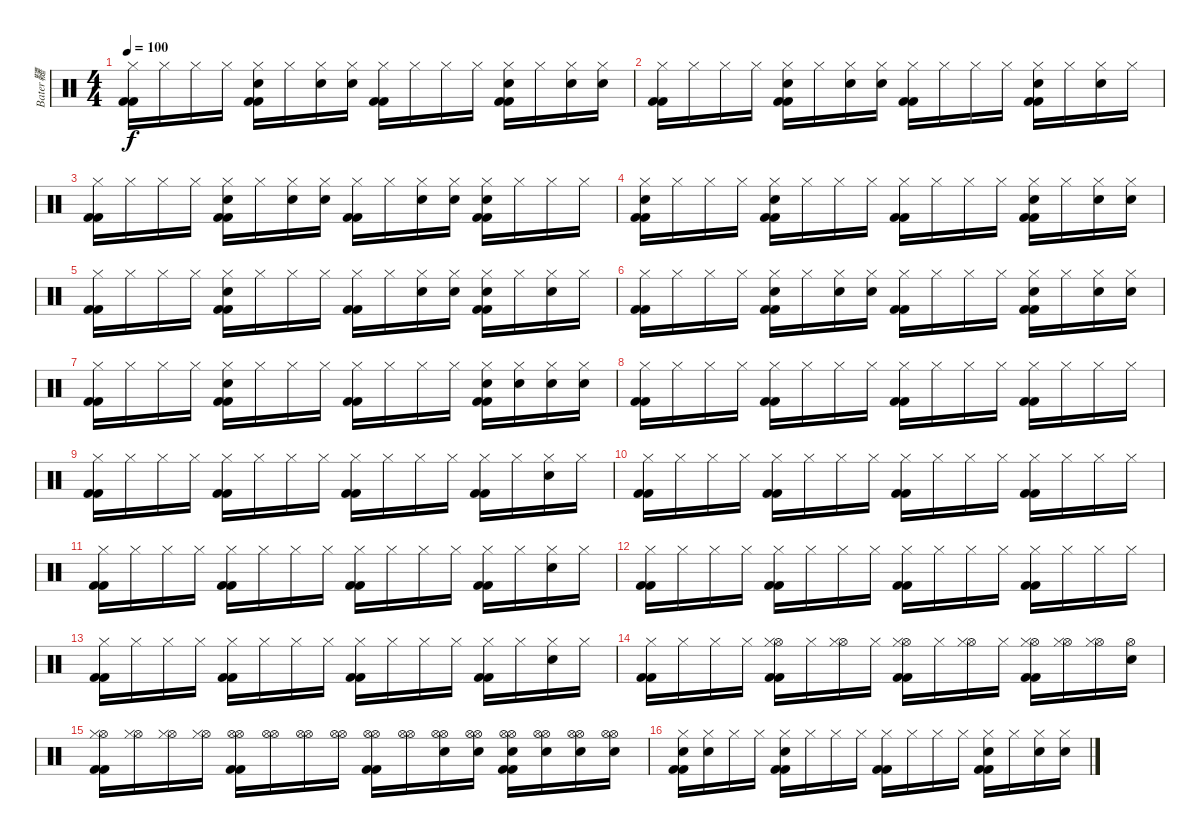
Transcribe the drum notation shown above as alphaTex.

\track ("Bater韆" "Bater韆") {instrument percussion}
\staff {score}
\articulation defaults
\ts (4 4)
\tempo 100
\clef neutral
\ks c
("Kick (hit) 2" "Kick (hit) 2" "Hi-Hat (closed)").16{dy f} "Hi-Hat (closed)".16 "Hi-Hat (closed)".16 "Hi-Hat (closed)".16 ("Kick (hit) 2" "Kick (hit) 2" "Electric Snare (hit)" "Hi-Hat (closed)").16 "Hi-Hat (closed)".16 ("Electric Snare (hit)" "Hi-Hat (closed)").16 ("Electric Snare (hit)" "Hi-Hat (closed)").16 ("Kick (hit) 2" "Kick (hit) 2" "Hi-Hat (closed)").16 "Hi-Hat (closed)".16 "Hi-Hat (closed)".16 "Hi-Hat (closed)".16 ("Kick (hit) 2" "Kick (hit) 2" "Electric Snare (hit)" "Hi-Hat (closed)").16 "Hi-Hat (closed)".16 ("Electric Snare (hit)" "Hi-Hat (closed)").16 ("Electric Snare (hit)" "Hi-Hat (closed)").16 |
("Kick (hit) 2" "Kick (hit) 2" "Hi-Hat (closed)").16 "Hi-Hat (closed)".16 "Hi-Hat (closed)".16 "Hi-Hat (closed)".16 ("Kick (hit) 2" "Kick (hit) 2" "Electric Snare (hit)" "Hi-Hat (closed)").16 "Hi-Hat (closed)".16 ("Electric Snare (hit)" "Hi-Hat (closed)").16 ("Electric Snare (hit)" "Hi-Hat (closed)").16 ("Kick (hit) 2" "Kick (hit) 2" "Hi-Hat (closed)").16 "Hi-Hat (closed)".16 "Hi-Hat (closed)".16 "Hi-Hat (closed)".16 ("Kick (hit) 2" "Kick (hit) 2" "Electric Snare (hit)" "Hi-Hat (closed)").16 "Hi-Hat (closed)".16 ("Electric Snare (hit)" "Hi-Hat (closed)").16 "Hi-Hat (closed)".16 |
("Kick (hit) 2" "Kick (hit) 2" "Hi-Hat (closed)").16 "Hi-Hat (closed)".16 "Hi-Hat (closed)".16 "Hi-Hat (closed)".16 ("Kick (hit) 2" "Kick (hit) 2" "Electric Snare (hit)" "Hi-Hat (closed)").16 "Hi-Hat (closed)".16 ("Electric Snare (hit)" "Hi-Hat (closed)").16 ("Electric Snare (hit)" "Hi-Hat (closed)").16 ("Kick (hit) 2" "Kick (hit) 2" "Hi-Hat (closed)").16 "Hi-Hat (closed)".16 ("Electric Snare (hit)" "Hi-Hat (closed)").16 ("Electric Snare (hit)" "Hi-Hat (closed)").16 ("Kick (hit) 2" "Kick (hit) 2" "Electric Snare (hit)" "Hi-Hat (closed)").16 "Hi-Hat (closed)".16 "Hi-Hat (closed)".16 "Hi-Hat (closed)".16 |
("Kick (hit) 2" "Kick (hit) 2" "Electric Snare (hit)" "Hi-Hat (closed)").16 "Hi-Hat (closed)".16 "Hi-Hat (closed)".16 "Hi-Hat (closed)".16 ("Kick (hit) 2" "Kick (hit) 2" "Electric Snare (hit)" "Hi-Hat (closed)").16 "Hi-Hat (closed)".16 "Hi-Hat (closed)".16 "Hi-Hat (closed)".16 ("Kick (hit) 2" "Kick (hit) 2" "Hi-Hat (closed)").16 "Hi-Hat (closed)".16 "Hi-Hat (closed)".16 "Hi-Hat (closed)".16 ("Kick (hit) 2" "Kick (hit) 2" "Electric Snare (hit)" "Hi-Hat (closed)").16 "Hi-Hat (closed)".16 ("Electric Snare (hit)" "Hi-Hat (closed)").16 ("Electric Snare (hit)" "Hi-Hat (closed)").16 |
("Kick (hit) 2" "Kick (hit) 2" "Hi-Hat (closed)").16 "Hi-Hat (closed)".16 "Hi-Hat (closed)".16 "Hi-Hat (closed)".16 ("Kick (hit) 2" "Kick (hit) 2" "Electric Snare (hit)" "Hi-Hat (closed)").16 "Hi-Hat (closed)".16 "Hi-Hat (closed)".16 "Hi-Hat (closed)".16 ("Kick (hit) 2" "Kick (hit) 2" "Hi-Hat (closed)").16 "Hi-Hat (closed)".16 ("Electric Snare (hit)" "Hi-Hat (closed)").16 ("Electric Snare (hit)" "Hi-Hat (closed)").16 ("Kick (hit) 2" "Kick (hit) 2" "Electric Snare (hit)" "Hi-Hat (closed)").16 "Hi-Hat (closed)".16 ("Electric Snare (hit)" "Hi-Hat (closed)").16 "Hi-Hat (closed)".16 |
("Kick (hit) 2" "Kick (hit) 2" "Hi-Hat (closed)").16 "Hi-Hat (closed)".16 "Hi-Hat (closed)".16 "Hi-Hat (closed)".16 ("Kick (hit) 2" "Kick (hit) 2" "Electric Snare (hit)" "Hi-Hat (closed)").16 "Hi-Hat (closed)".16 ("Electric Snare (hit)" "Hi-Hat (closed)").16 ("Electric Snare (hit)" "Hi-Hat (closed)").16 ("Kick (hit) 2" "Kick (hit) 2" "Hi-Hat (closed)").16 "Hi-Hat (closed)".16 "Hi-Hat (closed)".16 "Hi-Hat (closed)".16 ("Kick (hit) 2" "Kick (hit) 2" "Electric Snare (hit)" "Hi-Hat (closed)").16 "Hi-Hat (closed)".16 ("Electric Snare (hit)" "Hi-Hat (closed)").16 ("Electric Snare (hit)" "Hi-Hat (closed)").16 |
("Kick (hit) 2" "Kick (hit) 2" "Hi-Hat (closed)").16 "Hi-Hat (closed)".16 "Hi-Hat (closed)".16 "Hi-Hat (closed)".16 ("Kick (hit) 2" "Kick (hit) 2" "Electric Snare (hit)" "Hi-Hat (closed)").16 "Hi-Hat (closed)".16 "Hi-Hat (closed)".16 "Hi-Hat (closed)".16 ("Kick (hit) 2" "Kick (hit) 2" "Hi-Hat (closed)").16 "Hi-Hat (closed)".16 "Hi-Hat (closed)".16 "Hi-Hat (closed)".16 ("Kick (hit) 2" "Kick (hit) 2" "Electric Snare (hit)" "Hi-Hat (closed)").16 ("Electric Snare (hit)" "Hi-Hat (closed)").16 ("Electric Snare (hit)" "Hi-Hat (closed)").16 ("Electric Snare (hit)" "Hi-Hat (closed)").16 |
("Kick (hit) 2" "Kick (hit) 2" "Hi-Hat (closed)").16 "Hi-Hat (closed)".16 "Hi-Hat (closed)".16 "Hi-Hat (closed)".16 ("Kick (hit) 2" "Kick (hit) 2" "Hi-Hat (closed)").16 "Hi-Hat (closed)".16 "Hi-Hat (closed)".16 "Hi-Hat (closed)".16 ("Kick (hit) 2" "Kick (hit) 2" "Hi-Hat (closed)").16 "Hi-Hat (closed)".16 "Hi-Hat (closed)".16 "Hi-Hat (closed)".16 ("Kick (hit) 2" "Kick (hit) 2" "Hi-Hat (closed)").16 "Hi-Hat (closed)".16 "Hi-Hat (closed)".16 "Hi-Hat (closed)".16 |
("Kick (hit) 2" "Kick (hit) 2" "Hi-Hat (closed)").16 "Hi-Hat (closed)".16 "Hi-Hat (closed)".16 "Hi-Hat (closed)".16 ("Kick (hit) 2" "Kick (hit) 2" "Hi-Hat (closed)").16 "Hi-Hat (closed)".16 "Hi-Hat (closed)".16 "Hi-Hat (closed)".16 ("Kick (hit) 2" "Kick (hit) 2" "Hi-Hat (closed)").16 "Hi-Hat (closed)".16 "Hi-Hat (closed)".16 "Hi-Hat (closed)".16 ("Kick (hit) 2" "Kick (hit) 2" "Hi-Hat (closed)").16 "Hi-Hat (closed)".16 ("Electric Snare (hit)" "Hi-Hat (closed)").16 "Hi-Hat (closed)".16 |
("Kick (hit) 2" "Kick (hit) 2" "Hi-Hat (closed)").16 "Hi-Hat (closed)".16 "Hi-Hat (closed)".16 "Hi-Hat (closed)".16 ("Kick (hit) 2" "Kick (hit) 2" "Hi-Hat (closed)").16 "Hi-Hat (closed)".16 "Hi-Hat (closed)".16 "Hi-Hat (closed)".16 ("Kick (hit) 2" "Kick (hit) 2" "Hi-Hat (closed)").16 "Hi-Hat (closed)".16 "Hi-Hat (closed)".16 "Hi-Hat (closed)".16 ("Kick (hit) 2" "Kick (hit) 2" "Hi-Hat (closed)").16 "Hi-Hat (closed)".16 "Hi-Hat (closed)".16 "Hi-Hat (closed)".16 |
("Kick (hit) 2" "Kick (hit) 2" "Hi-Hat (closed)").16 "Hi-Hat (closed)".16 "Hi-Hat (closed)".16 "Hi-Hat (closed)".16 ("Kick (hit) 2" "Kick (hit) 2" "Hi-Hat (closed)").16 "Hi-Hat (closed)".16 "Hi-Hat (closed)".16 "Hi-Hat (closed)".16 ("Kick (hit) 2" "Kick (hit) 2" "Hi-Hat (closed)").16 "Hi-Hat (closed)".16 "Hi-Hat (closed)".16 "Hi-Hat (closed)".16 ("Kick (hit) 2" "Kick (hit) 2" "Hi-Hat (closed)").16 "Hi-Hat (closed)".16 ("Electric Snare (hit)" "Hi-Hat (closed)").16 "Hi-Hat (closed)".16 |
("Kick (hit) 2" "Kick (hit) 2" "Hi-Hat (closed)").16 "Hi-Hat (closed)".16 "Hi-Hat (closed)".16 "Hi-Hat (closed)".16 ("Kick (hit) 2" "Kick (hit) 2" "Hi-Hat (closed)").16 "Hi-Hat (closed)".16 "Hi-Hat (closed)".16 "Hi-Hat (closed)".16 ("Kick (hit) 2" "Kick (hit) 2" "Hi-Hat (closed)").16 "Hi-Hat (closed)".16 "Hi-Hat (closed)".16 "Hi-Hat (closed)".16 ("Kick (hit) 2" "Kick (hit) 2" "Hi-Hat (closed)").16 "Hi-Hat (closed)".16 "Hi-Hat (closed)".16 "Hi-Hat (closed)".16 |
("Kick (hit) 2" "Kick (hit) 2" "Hi-Hat (closed)").16 "Hi-Hat (closed)".16 "Hi-Hat (closed)".16 "Hi-Hat (closed)".16 ("Kick (hit) 2" "Kick (hit) 2" "Hi-Hat (closed)").16 "Hi-Hat (closed)".16 "Hi-Hat (closed)".16 "Hi-Hat (closed)".16 ("Kick (hit) 2" "Kick (hit) 2" "Hi-Hat (closed)").16 "Hi-Hat (closed)".16 "Hi-Hat (closed)".16 "Hi-Hat (closed)".16 ("Kick (hit) 2" "Kick (hit) 2" "Hi-Hat (closed)").16 "Hi-Hat (closed)".16 ("Electric Snare (hit)" "Hi-Hat (closed)").16 "Hi-Hat (closed)".16 |
("Kick (hit) 2" "Kick (hit) 2" "Hi-Hat (closed)").16 "Hi-Hat (closed)".16 "Hi-Hat (closed)".16 "Hi-Hat (closed)".16 ("Kick (hit) 2" "Kick (hit) 2" "Hi-Hat (open)" "Hi-Hat (closed)").16 "Hi-Hat (closed)".16 ("Hi-Hat (open)" "Hi-Hat (closed)").16 "Hi-Hat (closed)".16 ("Kick (hit) 2" "Kick (hit) 2" "Hi-Hat (open)" "Hi-Hat (closed)").16 "Hi-Hat (closed)".16 ("Hi-Hat (open)" "Hi-Hat (closed)").16 "Hi-Hat (closed)".16 ("Kick (hit) 2" "Kick (hit) 2" "Hi-Hat (open)" "Hi-Hat (closed)").16 ("Hi-Hat (open)" "Hi-Hat (closed)").16 ("Hi-Hat (open)" "Hi-Hat (closed)").16 ("Hi-Hat (open)" "Snare (hit)").16 |
("Kick (hit) 2" "Kick (hit) 2" "Hi-Hat (open)" "Hi-Hat (closed)").16 ("Hi-Hat (open)" "Hi-Hat (closed)").16 ("Hi-Hat (open)" "Hi-Hat (closed)").16 ("Hi-Hat (open)" "Hi-Hat (closed)").16 ("Kick (hit) 2" "Kick (hit) 2" "Hi-Hat (open)" "Hi-Hat (open)").16 ("Hi-Hat (open)" "Hi-Hat (open)").16 ("Hi-Hat (open)" "Hi-Hat (open)").16 ("Hi-Hat (open)" "Hi-Hat (open)").16 ("Kick (hit) 2" "Kick (hit) 2" "Hi-Hat (open)" "Hi-Hat (open)").16 ("Hi-Hat (open)" "Hi-Hat (open)").16 ("Electric Snare (hit)" "Hi-Hat (open)" "Hi-Hat (open)").16 ("Electric Snare (hit)" "Hi-Hat (open)" "Hi-Hat (open)").16 ("Kick (hit) 2" "Kick (hit) 2" "Electric Snare (hit)" "Hi-Hat (open)" "Hi-Hat (open)").16 ("Electric Snare (hit)" "Hi-Hat (open)" "Hi-Hat (open)").16 ("Electric Snare (hit)" "Hi-Hat (open)" "Hi-Hat (open)").16 ("Electric Snare (hit)" "Hi-Hat (open)" "Hi-Hat (open)").16 |
("Kick (hit) 2" "Kick (hit) 2" "Electric Snare (hit)" "Hi-Hat (closed)").16 ("Electric Snare (hit)" "Hi-Hat (closed)").16 "Hi-Hat (closed)".16 "Hi-Hat (closed)".16 ("Kick (hit) 2" "Kick (hit) 2" "Electric Snare (hit)" "Hi-Hat (closed)").16 "Hi-Hat (closed)".16 "Hi-Hat (closed)".16 "Hi-Hat (closed)".16 ("Kick (hit) 2" "Kick (hit) 2" "Hi-Hat (closed)").16 "Hi-Hat (closed)".16 "Hi-Hat (closed)".16 "Hi-Hat (closed)".16 ("Kick (hit) 2" "Kick (hit) 2" "Electric Snare (hit)" "Hi-Hat (closed)").16 "Hi-Hat (closed)".16 ("Electric Snare (hit)" "Hi-Hat (closed)").16 ("Electric Snare (hit)" "Hi-Hat (closed)").16
